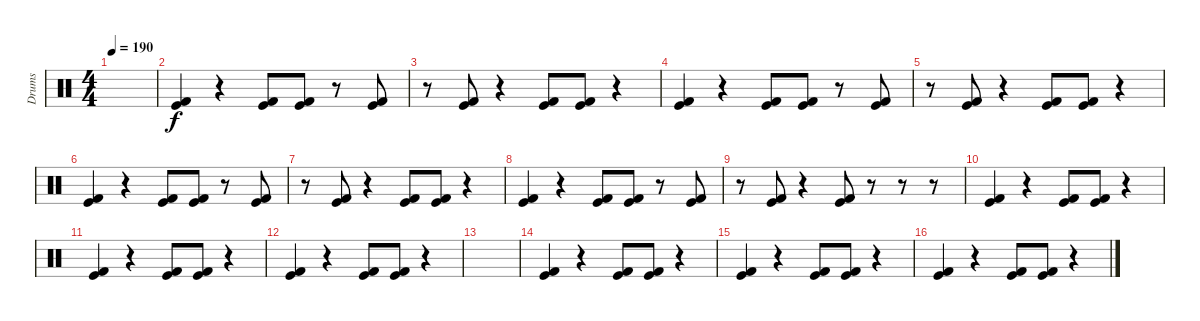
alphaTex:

\track ("Drums" "Drums") {instrument percussion}
\staff {score}
\articulation defaults
\ts (4 4)
\tempo 190
\clef neutral
\ks c
|
("Kick (hit) 2" "Kick (hit)").4 r.4 ("Kick (hit) 2" "Kick (hit)").8 ("Kick (hit) 2" "Kick (hit)").8 r.8 ("Kick (hit) 2" "Kick (hit)").8 |
r.8 ("Kick (hit) 2" "Kick (hit)").8 r.4 ("Kick (hit) 2" "Kick (hit)").8 ("Kick (hit) 2" "Kick (hit)").8 r.4 |
("Kick (hit) 2" "Kick (hit)").4 r.4 ("Kick (hit) 2" "Kick (hit)").8 ("Kick (hit) 2" "Kick (hit)").8 r.8 ("Kick (hit) 2" "Kick (hit)").8 |
r.8 ("Kick (hit) 2" "Kick (hit)").8 r.4 ("Kick (hit) 2" "Kick (hit)").8 ("Kick (hit) 2" "Kick (hit)").8 r.4 |
("Kick (hit) 2" "Kick (hit)").4 r.4 ("Kick (hit) 2" "Kick (hit)").8 ("Kick (hit) 2" "Kick (hit)").8 r.8 ("Kick (hit) 2" "Kick (hit)").8 |
r.8 ("Kick (hit) 2" "Kick (hit)").8 r.4 ("Kick (hit) 2" "Kick (hit)").8 ("Kick (hit) 2" "Kick (hit)").8 r.4 |
("Kick (hit) 2" "Kick (hit)").4 r.4 ("Kick (hit) 2" "Kick (hit)").8 ("Kick (hit) 2" "Kick (hit)").8 r.8 ("Kick (hit) 2" "Kick (hit)").8 |
r.8 ("Kick (hit) 2" "Kick (hit)").8 r.4 ("Kick (hit) 2" "Kick (hit)").8 r.8 r.8 r.8 |
("Kick (hit) 2" "Kick (hit)").4 r.4 ("Kick (hit) 2" "Kick (hit)").8 ("Kick (hit) 2" "Kick (hit)").8 r.4 |
("Kick (hit) 2" "Kick (hit)").4 r.4 ("Kick (hit) 2" "Kick (hit)").8 ("Kick (hit) 2" "Kick (hit)").8 r.4 |
("Kick (hit) 2" "Kick (hit)").4 r.4 ("Kick (hit) 2" "Kick (hit)").8 ("Kick (hit) 2" "Kick (hit)").8 r.4 |
|
("Kick (hit) 2" "Kick (hit)").4 r.4 ("Kick (hit) 2" "Kick (hit)").8 ("Kick (hit) 2" "Kick (hit)").8 r.4 |
("Kick (hit) 2" "Kick (hit)").4 r.4 ("Kick (hit) 2" "Kick (hit)").8 ("Kick (hit) 2" "Kick (hit)").8 r.4 |
("Kick (hit) 2" "Kick (hit)").4 r.4 ("Kick (hit) 2" "Kick (hit)").8 ("Kick (hit) 2" "Kick (hit)").8 r.4
